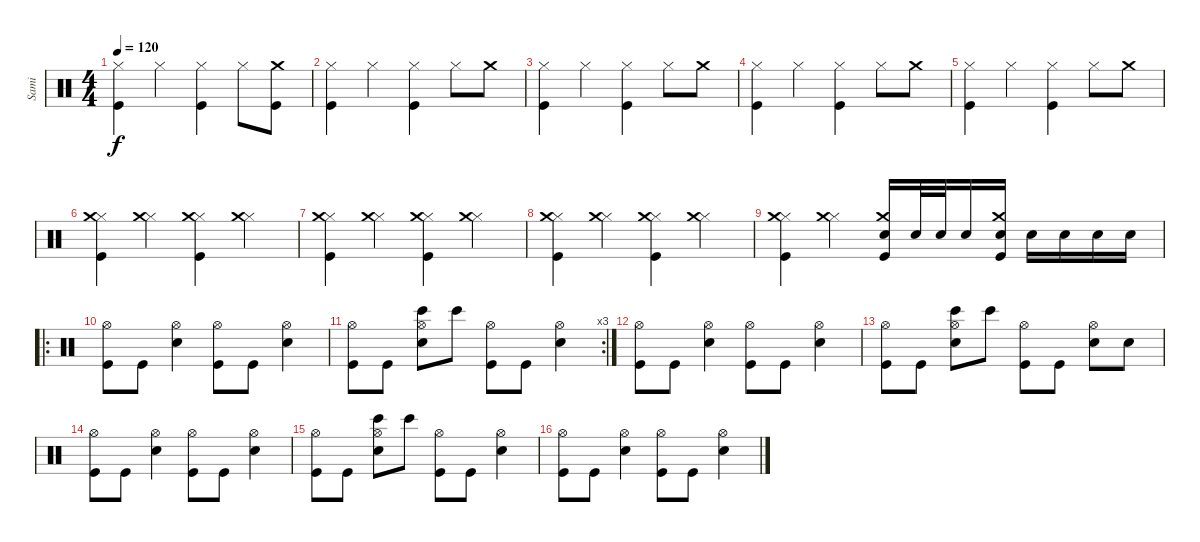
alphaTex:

\track ("Sami" "Sami") {instrument percussion}
\staff {score}
\articulation defaults
\ts (4 4)
\tempo 120
\clef neutral
\ks c
("Hi-Hat (closed)" "Kick (hit)").4{dy f} "Hi-Hat (closed)".4 ("Hi-Hat (closed)" "Kick (hit)").4 "Hi-Hat (closed)".8 ("Crash medium (hit)" "Kick (hit)").8 |
("Hi-Hat (closed)" "Kick (hit)").4 "Hi-Hat (closed)".4 ("Hi-Hat (closed)" "Kick (hit)").4 "Hi-Hat (closed)".8 "Crash medium (hit)".8 |
("Hi-Hat (closed)" "Kick (hit)").4 "Hi-Hat (closed)".4 ("Hi-Hat (closed)" "Kick (hit)").4 "Hi-Hat (closed)".8 "Crash medium (hit)".8 |
("Hi-Hat (closed)" "Kick (hit)").4 "Hi-Hat (closed)".4 ("Hi-Hat (closed)" "Kick (hit)").4 "Hi-Hat (closed)".8 "Crash medium (hit)".8 |
("Hi-Hat (closed)" "Kick (hit)").4 "Hi-Hat (closed)".4 ("Hi-Hat (closed)" "Kick (hit)").4 "Hi-Hat (closed)".8 "Crash medium (hit)".8 |
("Hi-Hat (closed)" "Kick (hit)" "Crash medium (hit)").4 ("Hi-Hat (closed)" "Crash medium (hit)").4 ("Hi-Hat (closed)" "Kick (hit)" "Crash medium (hit)").4 ("Hi-Hat (closed)" "Crash medium (hit)").4 |
("Hi-Hat (closed)" "Kick (hit)" "Crash medium (hit)").4 ("Hi-Hat (closed)" "Crash medium (hit)").4 ("Hi-Hat (closed)" "Kick (hit)" "Crash medium (hit)").4 ("Hi-Hat (closed)" "Crash medium (hit)").4 |
("Hi-Hat (closed)" "Kick (hit)" "Crash medium (hit)").4 ("Hi-Hat (closed)" "Crash medium (hit)").4 ("Hi-Hat (closed)" "Kick (hit)" "Crash medium (hit)").4 ("Hi-Hat (closed)" "Crash medium (hit)").4 |
("Hi-Hat (closed)" "Kick (hit)" "Crash medium (hit)").4 ("Hi-Hat (closed)" "Crash medium (hit)").4 ("Electric Snare (hit)" "Kick (hit)" "Crash medium (hit)").16 "Electric Snare (hit)".32 "Electric Snare (hit)".32 "Electric Snare (hit)".16 ("Electric Snare (hit)" "Kick (hit)" "Crash medium (hit)").16 "Electric Snare (hit)".16 "Electric Snare (hit)".16 "Electric Snare (hit)".16 "Electric Snare (hit)".16 |
\ro
("Hi-Hat (open)" "Kick (hit)").8 "Kick (hit)".8 ("Hi-Hat (open)" "Electric Snare (hit)").4 ("Hi-Hat (open)" "Kick (hit)").8 "Kick (hit)".8 ("Hi-Hat (open)" "Electric Snare (hit)").4 |
\rc 3
("Hi-Hat (open)" "Kick (hit)").8 "Kick (hit)".8 ("Hi-Hat (open)" "Bongo High (hit)" "Electric Snare (hit)").8 "Bongo High (hit)".8 ("Hi-Hat (open)" "Kick (hit)").8 "Kick (hit)".8 ("Hi-Hat (open)" "Electric Snare (hit)").4 |
("Hi-Hat (open)" "Kick (hit)").8 "Kick (hit)".8 ("Hi-Hat (open)" "Electric Snare (hit)").4 ("Hi-Hat (open)" "Kick (hit)").8 "Kick (hit)".8 ("Hi-Hat (open)" "Electric Snare (hit)").4 |
("Hi-Hat (open)" "Kick (hit)").8 "Kick (hit)".8 ("Hi-Hat (open)" "Bongo High (hit)" "Electric Snare (hit)").8 "Bongo High (hit)".8 ("Hi-Hat (open)" "Kick (hit)").8 "Kick (hit)".8 ("Hi-Hat (open)" "Electric Snare (hit)").8 "Electric Snare (hit)".8 |
("Hi-Hat (open)" "Kick (hit)").8 "Kick (hit)".8 ("Hi-Hat (open)" "Electric Snare (hit)").4 ("Hi-Hat (open)" "Kick (hit)").8 "Kick (hit)".8 ("Hi-Hat (open)" "Electric Snare (hit)").4 |
("Hi-Hat (open)" "Kick (hit)").8 "Kick (hit)".8 ("Hi-Hat (open)" "Bongo High (hit)" "Electric Snare (hit)").8 "Bongo High (hit)".8 ("Hi-Hat (open)" "Kick (hit)").8 "Kick (hit)".8 ("Hi-Hat (open)" "Electric Snare (hit)").4 |
("Hi-Hat (open)" "Kick (hit)").8 "Kick (hit)".8 ("Hi-Hat (open)" "Electric Snare (hit)").4 ("Hi-Hat (open)" "Kick (hit)").8 "Kick (hit)".8 ("Hi-Hat (open)" "Electric Snare (hit)").4
